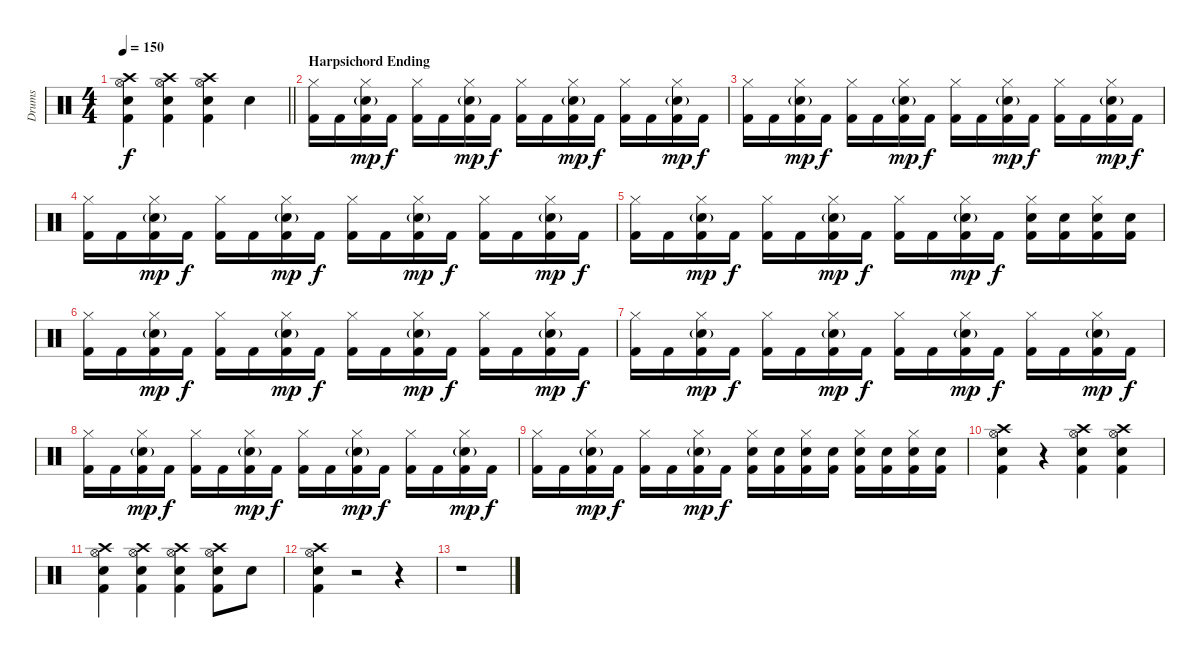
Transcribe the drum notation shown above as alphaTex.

\track ("Drums" "Drums") {instrument percussion}
\staff {score}
\articulation defaults
\ts (4 4)
\tempo 150
\clef neutral
\barLineRight lightlight
\ks c
("Crash high (hit)" "Hi-Hat (open)" "Electric Snare (hit)" "Kick (hit) 2").4{dy f} ("Crash high (hit)" "Hi-Hat (open)" "Electric Snare (hit)" "Kick (hit) 2").4 ("Crash high (hit)" "Hi-Hat (open)" "Electric Snare (hit)" "Kick (hit) 2").4 "Electric Snare (hit)".4 |
\section ("" "Harpsichord Ending")
("Hi-Hat (closed)" "Kick (hit) 2").16 "Kick (hit) 2".16 ("Hi-Hat (closed)" "Electric Snare (hit)"{g} "Kick (hit) 2").16{dy mp} "Kick (hit) 2".16{dy f} ("Hi-Hat (closed)" "Kick (hit) 2").16 "Kick (hit) 2".16 ("Hi-Hat (closed)" "Electric Snare (hit)"{g} "Kick (hit) 2").16{dy mp} "Kick (hit) 2".16{dy f} ("Hi-Hat (closed)" "Kick (hit) 2").16 "Kick (hit) 2".16 ("Hi-Hat (closed)" "Electric Snare (hit)"{g} "Kick (hit) 2").16{dy mp} "Kick (hit) 2".16{dy f} ("Hi-Hat (closed)" "Kick (hit) 2").16 "Kick (hit) 2".16 ("Hi-Hat (closed)" "Electric Snare (hit)"{g} "Kick (hit) 2").16{dy mp} "Kick (hit) 2".16{dy f} |
("Hi-Hat (closed)" "Kick (hit) 2").16 "Kick (hit) 2".16 ("Hi-Hat (closed)" "Electric Snare (hit)"{g} "Kick (hit) 2").16{dy mp} "Kick (hit) 2".16{dy f} ("Hi-Hat (closed)" "Kick (hit) 2").16 "Kick (hit) 2".16 ("Hi-Hat (closed)" "Electric Snare (hit)"{g} "Kick (hit) 2").16{dy mp} "Kick (hit) 2".16{dy f} ("Hi-Hat (closed)" "Kick (hit) 2").16 "Kick (hit) 2".16 ("Hi-Hat (closed)" "Electric Snare (hit)"{g} "Kick (hit) 2").16{dy mp} "Kick (hit) 2".16{dy f} ("Hi-Hat (closed)" "Kick (hit) 2").16 "Kick (hit) 2".16 ("Hi-Hat (closed)" "Electric Snare (hit)"{g} "Kick (hit) 2").16{dy mp} "Kick (hit) 2".16{dy f} |
("Hi-Hat (closed)" "Kick (hit) 2").16 "Kick (hit) 2".16 ("Hi-Hat (closed)" "Electric Snare (hit)"{g} "Kick (hit) 2").16{dy mp} "Kick (hit) 2".16{dy f} ("Hi-Hat (closed)" "Kick (hit) 2").16 "Kick (hit) 2".16 ("Hi-Hat (closed)" "Electric Snare (hit)"{g} "Kick (hit) 2").16{dy mp} "Kick (hit) 2".16{dy f} ("Hi-Hat (closed)" "Kick (hit) 2").16 "Kick (hit) 2".16 ("Hi-Hat (closed)" "Electric Snare (hit)"{g} "Kick (hit) 2").16{dy mp} "Kick (hit) 2".16{dy f} ("Hi-Hat (closed)" "Kick (hit) 2").16 "Kick (hit) 2".16 ("Hi-Hat (closed)" "Electric Snare (hit)"{g} "Kick (hit) 2").16{dy mp} "Kick (hit) 2".16{dy f} |
("Hi-Hat (closed)" "Kick (hit) 2").16 "Kick (hit) 2".16 ("Hi-Hat (closed)" "Electric Snare (hit)"{g} "Kick (hit) 2").16{dy mp} "Kick (hit) 2".16{dy f} ("Hi-Hat (closed)" "Kick (hit) 2").16 "Kick (hit) 2".16 ("Hi-Hat (closed)" "Electric Snare (hit)"{g} "Kick (hit) 2").16{dy mp} "Kick (hit) 2".16{dy f} ("Hi-Hat (closed)" "Kick (hit) 2").16 "Kick (hit) 2".16 ("Hi-Hat (closed)" "Electric Snare (hit)"{g} "Kick (hit) 2").16{dy mp} "Kick (hit) 2".16{dy f} ("Hi-Hat (closed)" "Electric Snare (hit)" "Kick (hit) 2").16 ("Electric Snare (hit)" "Kick (hit) 2").16 ("Hi-Hat (closed)" "Electric Snare (hit)" "Kick (hit) 2").16 ("Electric Snare (hit)" "Kick (hit) 2").16 |
("Hi-Hat (closed)" "Kick (hit) 2").16 "Kick (hit) 2".16 ("Hi-Hat (closed)" "Electric Snare (hit)"{g} "Kick (hit) 2").16{dy mp} "Kick (hit) 2".16{dy f} ("Hi-Hat (closed)" "Kick (hit) 2").16 "Kick (hit) 2".16 ("Hi-Hat (closed)" "Electric Snare (hit)"{g} "Kick (hit) 2").16{dy mp} "Kick (hit) 2".16{dy f} ("Hi-Hat (closed)" "Kick (hit) 2").16 "Kick (hit) 2".16 ("Hi-Hat (closed)" "Electric Snare (hit)"{g} "Kick (hit) 2").16{dy mp} "Kick (hit) 2".16{dy f} ("Hi-Hat (closed)" "Kick (hit) 2").16 "Kick (hit) 2".16 ("Hi-Hat (closed)" "Electric Snare (hit)"{g} "Kick (hit) 2").16{dy mp} "Kick (hit) 2".16{dy f} |
("Hi-Hat (closed)" "Kick (hit) 2").16 "Kick (hit) 2".16 ("Hi-Hat (closed)" "Electric Snare (hit)"{g} "Kick (hit) 2").16{dy mp} "Kick (hit) 2".16{dy f} ("Hi-Hat (closed)" "Kick (hit) 2").16 "Kick (hit) 2".16 ("Hi-Hat (closed)" "Electric Snare (hit)"{g} "Kick (hit) 2").16{dy mp} "Kick (hit) 2".16{dy f} ("Hi-Hat (closed)" "Kick (hit) 2").16 "Kick (hit) 2".16 ("Hi-Hat (closed)" "Electric Snare (hit)"{g} "Kick (hit) 2").16{dy mp} "Kick (hit) 2".16{dy f} ("Hi-Hat (closed)" "Kick (hit) 2").16 "Kick (hit) 2".16 ("Hi-Hat (closed)" "Electric Snare (hit)"{g} "Kick (hit) 2").16{dy mp} "Kick (hit) 2".16{dy f} |
("Hi-Hat (closed)" "Kick (hit) 2").16 "Kick (hit) 2".16 ("Hi-Hat (closed)" "Electric Snare (hit)"{g} "Kick (hit) 2").16{dy mp} "Kick (hit) 2".16{dy f} ("Hi-Hat (closed)" "Kick (hit) 2").16 "Kick (hit) 2".16 ("Hi-Hat (closed)" "Electric Snare (hit)"{g} "Kick (hit) 2").16{dy mp} "Kick (hit) 2".16{dy f} ("Hi-Hat (closed)" "Kick (hit) 2").16 "Kick (hit) 2".16 ("Hi-Hat (closed)" "Electric Snare (hit)"{g} "Kick (hit) 2").16{dy mp} "Kick (hit) 2".16{dy f} ("Hi-Hat (closed)" "Kick (hit) 2").16 "Kick (hit) 2".16 ("Hi-Hat (closed)" "Electric Snare (hit)"{g} "Kick (hit) 2").16{dy mp} "Kick (hit) 2".16{dy f} |
("Hi-Hat (closed)" "Kick (hit) 2").16 "Kick (hit) 2".16 ("Hi-Hat (closed)" "Electric Snare (hit)"{g} "Kick (hit) 2").16{dy mp} "Kick (hit) 2".16{dy f} ("Hi-Hat (closed)" "Kick (hit) 2").16 "Kick (hit) 2".16 ("Hi-Hat (closed)" "Electric Snare (hit)"{g} "Kick (hit) 2").16{dy mp} "Kick (hit) 2".16{dy f} ("Hi-Hat (closed)" "Electric Snare (hit)" "Kick (hit) 2").16 ("Electric Snare (hit)" "Kick (hit) 2").16 ("Hi-Hat (closed)" "Electric Snare (hit)" "Kick (hit) 2").16 ("Electric Snare (hit)" "Kick (hit) 2").16 ("Hi-Hat (closed)" "Electric Snare (hit)" "Kick (hit) 2").16 ("Electric Snare (hit)" "Kick (hit) 2").16 ("Hi-Hat (closed)" "Electric Snare (hit)" "Kick (hit) 2").16 ("Electric Snare (hit)" "Kick (hit) 2").16 |
("Crash high (hit)" "Hi-Hat (open)" "Electric Snare (hit)" "Kick (hit) 2").4 r.4 ("Crash high (hit)" "Hi-Hat (open)" "Electric Snare (hit)" "Kick (hit) 2").4 ("Crash high (hit)" "Hi-Hat (open)" "Electric Snare (hit)" "Kick (hit) 2").4 |
("Crash high (hit)" "Hi-Hat (open)" "Electric Snare (hit)" "Kick (hit) 2").4 ("Crash high (hit)" "Hi-Hat (open)" "Electric Snare (hit)" "Kick (hit) 2").4 ("Crash high (hit)" "Hi-Hat (open)" "Electric Snare (hit)" "Kick (hit) 2").4 ("Crash high (hit)" "Hi-Hat (open)" "Electric Snare (hit)" "Kick (hit) 2").8 "Electric Snare (hit)".8 |
("Crash high (hit)" "Hi-Hat (open)" "Electric Snare (hit)" "Kick (hit) 2").4 r.2 r.4 |
r.1
